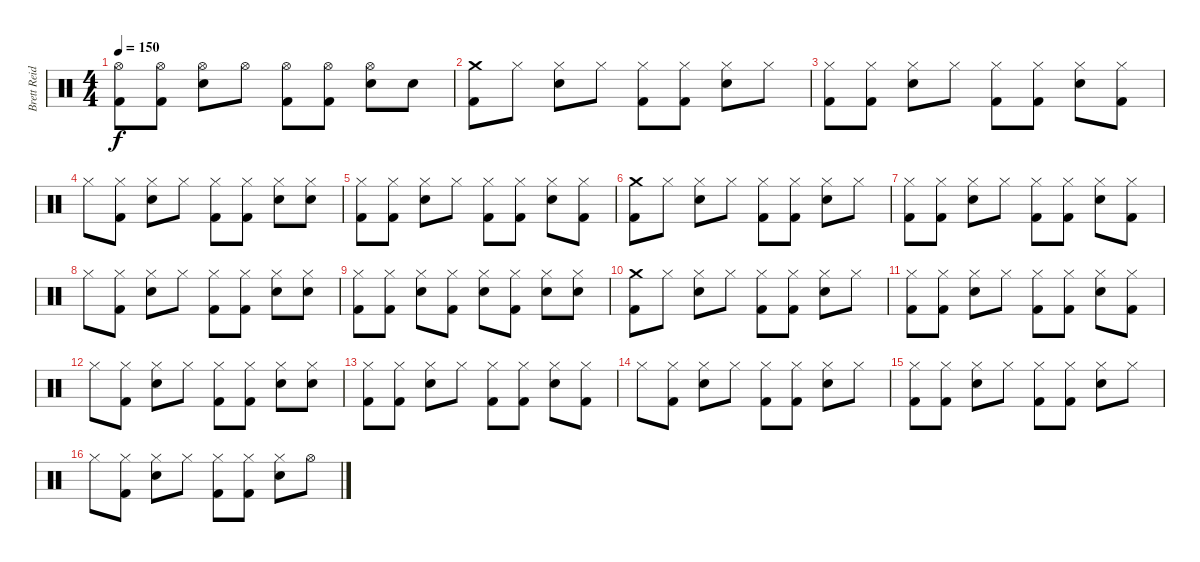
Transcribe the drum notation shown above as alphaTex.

\track ("Brett Reid" "Brett Reid") {instrument percussion}
\staff {score}
\articulation defaults
\ts (4 4)
\tempo 150
\clef neutral
\ks c
("Hi-Hat (open)" "Kick (hit) 2").8{dy f} ("Hi-Hat (open)" "Kick (hit) 2").8 ("Hi-Hat (open)" "Snare (hit) 2").8 "Hi-Hat (open)".8 ("Hi-Hat (open)" "Kick (hit) 2").8 ("Hi-Hat (open)" "Kick (hit) 2").8 ("Hi-Hat (open)" "Snare (hit) 2").8 "Snare (hit) 2".8 |
("Crash medium (hit)" "Kick (hit) 2").8 "Hi-Hat (closed)".8 ("Hi-Hat (closed)" "Snare (hit) 2").8 "Hi-Hat (closed)".8 ("Hi-Hat (closed)" "Kick (hit) 2").8 ("Hi-Hat (closed)" "Kick (hit) 2").8 ("Hi-Hat (closed)" "Snare (hit) 2").8 "Hi-Hat (closed)".8 |
("Hi-Hat (closed)" "Kick (hit) 2").8 ("Hi-Hat (closed)" "Kick (hit) 2").8 ("Hi-Hat (closed)" "Snare (hit) 2").8 "Hi-Hat (closed)".8 ("Hi-Hat (closed)" "Kick (hit) 2").8 ("Hi-Hat (closed)" "Kick (hit) 2").8 ("Hi-Hat (closed)" "Snare (hit) 2").8 ("Hi-Hat (closed)" "Kick (hit) 2").8 |
"Hi-Hat (closed)".8 ("Hi-Hat (closed)" "Kick (hit) 2").8 ("Hi-Hat (closed)" "Snare (hit) 2").8 "Hi-Hat (closed)".8 ("Hi-Hat (closed)" "Kick (hit) 2").8 ("Hi-Hat (closed)" "Kick (hit) 2").8 ("Hi-Hat (closed)" "Snare (hit) 2").8 ("Hi-Hat (closed)" "Snare (hit) 2").8 |
("Hi-Hat (closed)" "Kick (hit) 2").8 ("Hi-Hat (closed)" "Kick (hit) 2").8 ("Hi-Hat (closed)" "Snare (hit) 2").8 "Hi-Hat (closed)".8 ("Hi-Hat (closed)" "Kick (hit) 2").8 ("Hi-Hat (closed)" "Kick (hit) 2").8 ("Hi-Hat (closed)" "Snare (hit) 2").8 ("Hi-Hat (closed)" "Kick (hit) 2").8 |
("Crash medium (hit)" "Kick (hit) 2").8 "Hi-Hat (closed)".8 ("Hi-Hat (closed)" "Snare (hit) 2").8 "Hi-Hat (closed)".8 ("Hi-Hat (closed)" "Kick (hit) 2").8 ("Hi-Hat (closed)" "Kick (hit) 2").8 ("Hi-Hat (closed)" "Snare (hit) 2").8 "Hi-Hat (closed)".8 |
("Hi-Hat (closed)" "Kick (hit) 2").8 ("Hi-Hat (closed)" "Kick (hit) 2").8 ("Hi-Hat (closed)" "Snare (hit) 2").8 "Hi-Hat (closed)".8 ("Hi-Hat (closed)" "Kick (hit) 2").8 ("Hi-Hat (closed)" "Kick (hit) 2").8 ("Hi-Hat (closed)" "Snare (hit) 2").8 ("Hi-Hat (closed)" "Kick (hit) 2").8 |
"Hi-Hat (closed)".8 ("Hi-Hat (closed)" "Kick (hit) 2").8 ("Hi-Hat (closed)" "Snare (hit) 2").8 "Hi-Hat (closed)".8 ("Hi-Hat (closed)" "Kick (hit) 2").8 ("Hi-Hat (closed)" "Kick (hit) 2").8 ("Hi-Hat (closed)" "Snare (hit) 2").8 ("Hi-Hat (closed)" "Snare (hit) 2").8 |
("Hi-Hat (closed)" "Kick (hit) 2").8 ("Hi-Hat (closed)" "Kick (hit) 2").8 ("Hi-Hat (closed)" "Snare (hit) 2").8 ("Hi-Hat (closed)" "Kick (hit) 2").8 ("Hi-Hat (closed)" "Snare (hit) 2").8 ("Hi-Hat (closed)" "Kick (hit) 2").8 ("Hi-Hat (closed)" "Snare (hit) 2").8 ("Hi-Hat (closed)" "Snare (hit) 2").8 |
("Crash medium (hit)" "Kick (hit) 2").8 "Hi-Hat (closed)".8 ("Hi-Hat (closed)" "Snare (hit) 2").8 "Hi-Hat (closed)".8 ("Hi-Hat (closed)" "Kick (hit) 2").8 ("Hi-Hat (closed)" "Kick (hit) 2").8 ("Hi-Hat (closed)" "Snare (hit) 2").8 "Hi-Hat (closed)".8 |
("Hi-Hat (closed)" "Kick (hit) 2").8 ("Hi-Hat (closed)" "Kick (hit) 2").8 ("Hi-Hat (closed)" "Snare (hit) 2").8 "Hi-Hat (closed)".8 ("Hi-Hat (closed)" "Kick (hit) 2").8 ("Hi-Hat (closed)" "Kick (hit) 2").8 ("Hi-Hat (closed)" "Snare (hit) 2").8 ("Hi-Hat (closed)" "Kick (hit) 2").8 |
"Hi-Hat (closed)".8 ("Hi-Hat (closed)" "Kick (hit) 2").8 ("Hi-Hat (closed)" "Snare (hit) 2").8 "Hi-Hat (closed)".8 ("Hi-Hat (closed)" "Kick (hit) 2").8 ("Hi-Hat (closed)" "Kick (hit) 2").8 ("Hi-Hat (closed)" "Snare (hit) 2").8 ("Hi-Hat (closed)" "Snare (hit) 2").8 |
("Hi-Hat (closed)" "Kick (hit) 2").8 ("Hi-Hat (closed)" "Kick (hit) 2").8 ("Hi-Hat (closed)" "Snare (hit) 2").8 "Hi-Hat (closed)".8 ("Hi-Hat (closed)" "Kick (hit) 2").8 ("Hi-Hat (closed)" "Kick (hit) 2").8 ("Hi-Hat (closed)" "Snare (hit) 2").8 ("Hi-Hat (closed)" "Kick (hit) 2").8 |
"Hi-Hat (closed)".8 ("Hi-Hat (closed)" "Kick (hit) 2").8 ("Hi-Hat (closed)" "Snare (hit) 2").8 "Hi-Hat (closed)".8 ("Hi-Hat (closed)" "Kick (hit) 2").8 ("Hi-Hat (closed)" "Kick (hit) 2").8 ("Hi-Hat (closed)" "Snare (hit) 2").8 "Hi-Hat (closed)".8 |
("Hi-Hat (closed)" "Kick (hit) 2").8 ("Hi-Hat (closed)" "Kick (hit) 2").8 ("Hi-Hat (closed)" "Snare (hit) 2").8 "Hi-Hat (closed)".8 ("Hi-Hat (closed)" "Kick (hit) 2").8 ("Hi-Hat (closed)" "Kick (hit) 2").8 ("Hi-Hat (closed)" "Snare (hit) 2").8 "Hi-Hat (closed)".8 |
"Hi-Hat (closed)".8 ("Hi-Hat (closed)" "Kick (hit) 2").8 ("Hi-Hat (closed)" "Snare (hit) 2").8 "Hi-Hat (closed)".8 ("Hi-Hat (closed)" "Kick (hit) 2").8 ("Hi-Hat (closed)" "Kick (hit) 2").8 ("Hi-Hat (closed)" "Snare (hit) 2").8 "Hi-Hat (open)".8
